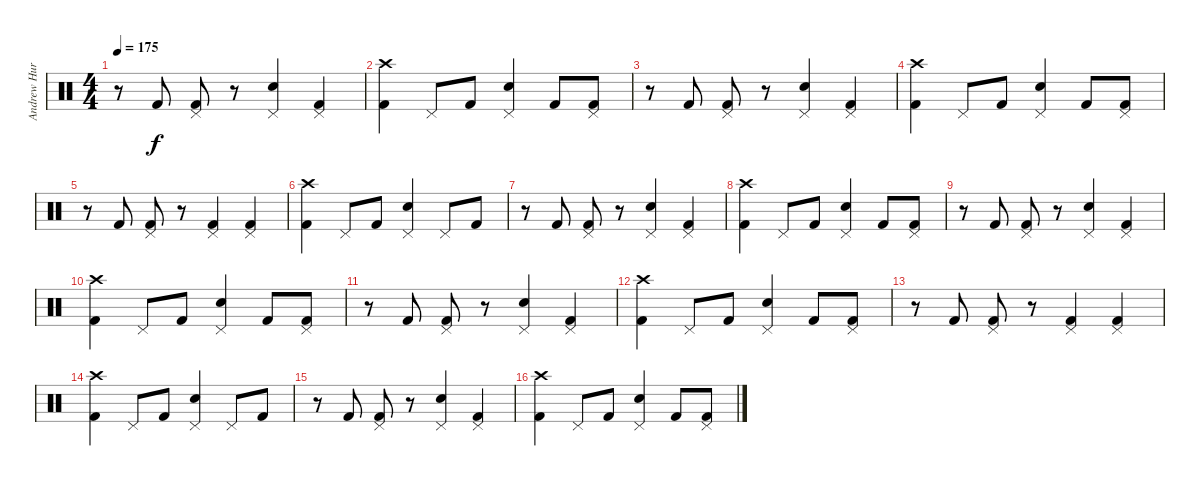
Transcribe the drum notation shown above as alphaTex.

\track ("Andrew Hurley (Drums)" "Andrew Hur") {instrument percussion}
\staff {score}
\articulation defaults
\ts (4 4)
\tempo 175
\clef neutral
\ks c
r.8{dy f} "Kick (hit) 2".8 ("Pedal Hi-Hat (hit)" "Kick (hit) 2").8 r.8 ("Pedal Hi-Hat (hit)" "Snare (hit) 2").4 ("Pedal Hi-Hat (hit)" "Kick (hit) 2").4 |
("Crash high (hit)" "Kick (hit) 2").4 "Pedal Hi-Hat (hit)".8 "Kick (hit) 2".8 ("Pedal Hi-Hat (hit)" "Snare (hit) 2").4 "Kick (hit) 2".8 ("Pedal Hi-Hat (hit)" "Kick (hit) 2").8 |
r.8 "Kick (hit) 2".8 ("Pedal Hi-Hat (hit)" "Kick (hit) 2").8 r.8 ("Pedal Hi-Hat (hit)" "Snare (hit) 2").4 ("Pedal Hi-Hat (hit)" "Kick (hit) 2").4 |
("Crash high (hit)" "Kick (hit) 2").4 "Pedal Hi-Hat (hit)".8 "Kick (hit) 2".8 ("Pedal Hi-Hat (hit)" "Snare (hit) 2").4 "Kick (hit) 2".8 ("Pedal Hi-Hat (hit)" "Kick (hit) 2").8 |
r.8 "Kick (hit) 2".8 ("Pedal Hi-Hat (hit)" "Kick (hit) 2").8 r.8 ("Pedal Hi-Hat (hit)" "Kick (hit) 2").4 ("Pedal Hi-Hat (hit)" "Kick (hit) 2").4 |
("Crash high (hit)" "Kick (hit) 2").4 "Pedal Hi-Hat (hit)".8 "Kick (hit) 2".8 ("Pedal Hi-Hat (hit)" "Snare (hit) 2").4 "Pedal Hi-Hat (hit)".8 "Kick (hit) 2".8 |
r.8 "Kick (hit) 2".8 ("Pedal Hi-Hat (hit)" "Kick (hit) 2").8 r.8 ("Pedal Hi-Hat (hit)" "Snare (hit) 2").4 ("Pedal Hi-Hat (hit)" "Kick (hit) 2").4 |
("Crash high (hit)" "Kick (hit) 2").4 "Pedal Hi-Hat (hit)".8 "Kick (hit) 2".8 ("Pedal Hi-Hat (hit)" "Snare (hit) 2").4 "Kick (hit) 2".8 ("Pedal Hi-Hat (hit)" "Kick (hit) 2").8 |
r.8 "Kick (hit) 2".8 ("Pedal Hi-Hat (hit)" "Kick (hit) 2").8 r.8 ("Pedal Hi-Hat (hit)" "Snare (hit) 2").4 ("Pedal Hi-Hat (hit)" "Kick (hit) 2").4 |
("Crash high (hit)" "Kick (hit) 2").4 "Pedal Hi-Hat (hit)".8 "Kick (hit) 2".8 ("Pedal Hi-Hat (hit)" "Snare (hit) 2").4 "Kick (hit) 2".8 ("Pedal Hi-Hat (hit)" "Kick (hit) 2").8 |
r.8 "Kick (hit) 2".8 ("Pedal Hi-Hat (hit)" "Kick (hit) 2").8 r.8 ("Pedal Hi-Hat (hit)" "Snare (hit) 2").4 ("Pedal Hi-Hat (hit)" "Kick (hit) 2").4 |
("Crash high (hit)" "Kick (hit) 2").4 "Pedal Hi-Hat (hit)".8 "Kick (hit) 2".8 ("Pedal Hi-Hat (hit)" "Snare (hit) 2").4 "Kick (hit) 2".8 ("Pedal Hi-Hat (hit)" "Kick (hit) 2").8 |
r.8 "Kick (hit) 2".8 ("Pedal Hi-Hat (hit)" "Kick (hit) 2").8 r.8 ("Pedal Hi-Hat (hit)" "Kick (hit) 2").4 ("Pedal Hi-Hat (hit)" "Kick (hit) 2").4 |
("Crash high (hit)" "Kick (hit) 2").4 "Pedal Hi-Hat (hit)".8 "Kick (hit) 2".8 ("Pedal Hi-Hat (hit)" "Snare (hit) 2").4 "Pedal Hi-Hat (hit)".8 "Kick (hit) 2".8 |
r.8 "Kick (hit) 2".8 ("Pedal Hi-Hat (hit)" "Kick (hit) 2").8 r.8 ("Pedal Hi-Hat (hit)" "Snare (hit) 2").4 ("Pedal Hi-Hat (hit)" "Kick (hit) 2").4 |
("Crash high (hit)" "Kick (hit) 2").4 "Pedal Hi-Hat (hit)".8 "Kick (hit) 2".8 ("Pedal Hi-Hat (hit)" "Snare (hit) 2").4 "Kick (hit) 2".8 ("Pedal Hi-Hat (hit)" "Kick (hit) 2").8
